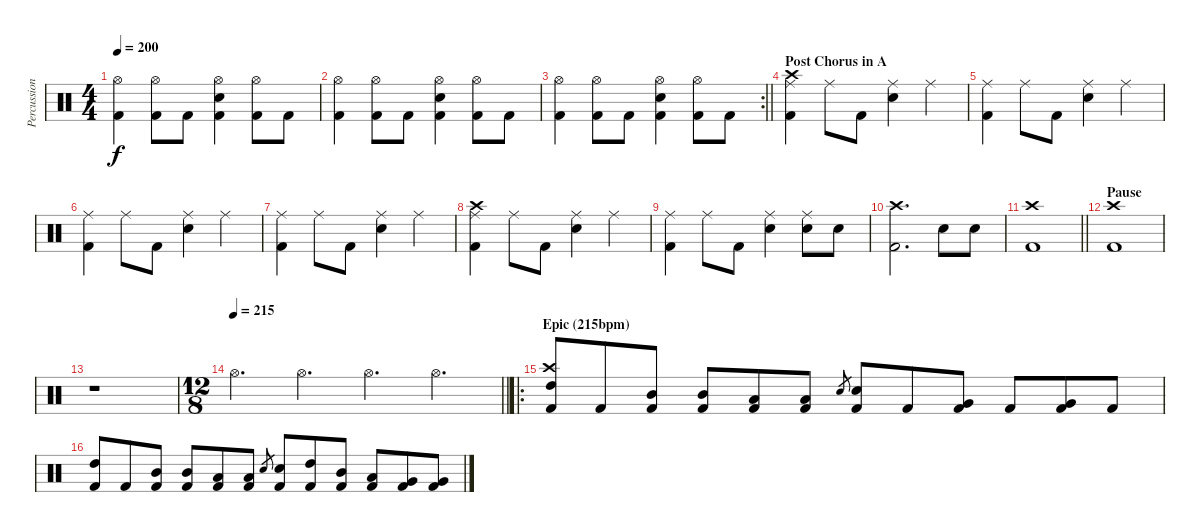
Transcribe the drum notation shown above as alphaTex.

\track ("Percussion" "Percussion") {instrument percussion}
\staff {score}
\articulation defaults
\ts (4 4)
\tempo 200
\clef neutral
\ks c
("Hi-Hat (open)" "Kick (hit) 2").4{dy f} ("Hi-Hat (open)" "Kick (hit) 2").8 "Kick (hit) 2".8 ("Hi-Hat (open)" "Snare (hit) 2" "Kick (hit) 2").4 ("Hi-Hat (open)" "Kick (hit) 2").8 "Kick (hit) 2".8 |
("Hi-Hat (open)" "Kick (hit) 2").4 ("Hi-Hat (open)" "Kick (hit) 2").8 "Kick (hit) 2".8 ("Hi-Hat (open)" "Snare (hit) 2" "Kick (hit) 2").4 ("Hi-Hat (open)" "Kick (hit) 2").8 "Kick (hit) 2".8 |
\rc 2
\barLineRight lightlight
("Hi-Hat (open)" "Kick (hit) 2").4 ("Hi-Hat (open)" "Kick (hit) 2").8 "Kick (hit) 2".8 ("Hi-Hat (open)" "Snare (hit) 2" "Kick (hit) 2").4 ("Hi-Hat (open)" "Kick (hit) 2").8 "Kick (hit) 2".8 |
\section ("" "Post Chorus in A")
("Crash high (hit)" "Ride (middle)" "Kick (hit) 2").4 "Ride (middle)".8 "Kick (hit) 2".8 ("Ride (middle)" "Snare (hit) 2").4 "Ride (middle)".4 |
("Ride (middle)" "Kick (hit) 2").4 "Ride (middle)".8 "Kick (hit) 2".8 ("Ride (middle)" "Snare (hit) 2").4 "Ride (middle)".4 |
("Ride (middle)" "Kick (hit) 2").4 "Ride (middle)".8 "Kick (hit) 2".8 ("Ride (middle)" "Snare (hit) 2").4 "Ride (middle)".4 |
("Ride (middle)" "Kick (hit) 2").4 "Ride (middle)".8 "Kick (hit) 2".8 ("Ride (middle)" "Snare (hit) 2").4 "Ride (middle)".4 |
("Crash high (hit)" "Ride (middle)" "Kick (hit) 2").4 "Ride (middle)".8 "Kick (hit) 2".8 ("Ride (middle)" "Snare (hit) 2").4 "Ride (middle)".4 |
("Ride (middle)" "Kick (hit) 2").4 "Ride (middle)".8 "Kick (hit) 2".8 ("Ride (middle)" "Snare (hit) 2").4 ("Ride (middle)" "Snare (hit) 2").8 "Snare (hit) 2".8 |
("Crash high (hit)" "Kick (hit) 2").2{d} "Snare (hit) 2".8 "Snare (hit) 2".8 |
\barLineRight lightlight
("Crash high (hit)" "Kick (hit) 2").1 |
\section ("" "Pause")
("Crash high (hit)" "Kick (hit) 2").1 |
r.1 |
\ts (12 8)
\tempo 215
\barLineRight lightlight "Hi-Hat (open)".4{d} "Hi-Hat (open)".4{d} "Hi-Hat (open)".4{d} "Hi-Hat (open)".4{d}
|
\ro
\section ("" "Epic (215bpm)")
("Crash high (hit)" "High Tom (hit)" "Kick (hit) 2").8 "Kick (hit) 2".8 ("Mid Tom (hit)" "Kick (hit) 2").8 ("Mid Tom (hit)" "Kick (hit) 2").8 ("Low Tom (hit)" "Kick (hit) 2").8 ("Low Tom (hit)" "Kick (hit) 2").8 "Snare (hit) 2".8{gr} ("Snare (hit) 2" "Kick (hit) 2").8 "Kick (hit) 2".8 ("Very Low Tom (hit)" "Kick (hit) 2").8 "Kick (hit) 2".8 ("Very Low Tom (hit)" "Kick (hit) 2").8 "Kick (hit) 2".8 |
("High Tom (hit)" "Kick (hit) 2").8 "Kick (hit) 2".8 ("Mid Tom (hit)" "Kick (hit) 2").8 ("Mid Tom (hit)" "Kick (hit) 2").8 ("Low Tom (hit)" "Kick (hit) 2").8 ("Low Tom (hit)" "Kick (hit) 2").8 "Snare (hit) 2".8{gr} ("Snare (hit) 2" "Kick (hit) 2").8 ("High Tom (hit)" "Kick (hit) 2").8 ("Mid Tom (hit)" "Kick (hit) 2").8 ("Low Tom (hit)" "Kick (hit) 2").8 ("Very Low Tom (hit)" "Kick (hit) 2").8 ("Very Low Tom (hit)" "Kick (hit) 2").8
